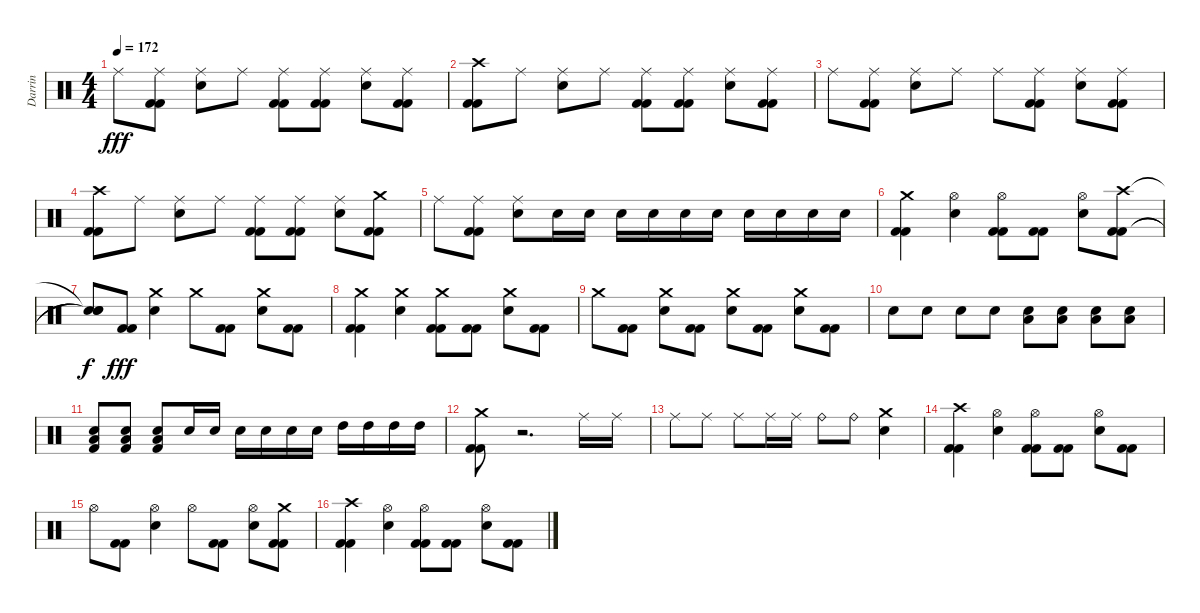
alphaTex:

\track ("Darrin" "Darrin") {instrument percussion}
\staff {score}
\articulation defaults
\ts (4 4)
\tempo 172
\clef neutral
\ks c "Ride (middle)".8{dy fff}
("Ride (middle)" "Kick (hit) 2" "Kick (hit) 2").8 ("Ride (middle)" "Snare (hit) 2").8 "Ride (middle)".8 ("Ride (middle)" "Kick (hit) 2" "Kick (hit) 2").8 ("Ride (middle)" "Kick (hit) 2" "Kick (hit) 2").8 ("Ride (middle)" "Snare (hit) 2").8 ("Ride (middle)" "Kick (hit) 2" "Kick (hit) 2").8 |
("Crash high (hit)" "Kick (hit) 2" "Kick (hit) 2").8 "Ride (middle)".8 ("Ride (middle)" "Snare (hit) 2").8 "Ride (middle)".8 ("Ride (middle)" "Kick (hit) 2" "Kick (hit) 2").8 ("Ride (middle)" "Kick (hit) 2" "Kick (hit) 2").8 ("Ride (middle)" "Snare (hit) 2").8 ("Ride (middle)" "Kick (hit) 2" "Kick (hit) 2").8 |
"Ride (middle)".8 ("Ride (middle)" "Kick (hit) 2" "Kick (hit) 2").8 ("Ride (middle)" "Snare (hit) 2").8 "Ride (middle)".8 "Ride (middle)".8 ("Ride (middle)" "Kick (hit) 2" "Kick (hit) 2").8 ("Ride (middle)" "Snare (hit) 2").8 ("Ride (middle)" "Kick (hit) 2" "Kick (hit) 2").8 |
("Crash high (hit)" "Kick (hit) 2" "Kick (hit) 2").8 "Ride (middle)".8 ("Ride (middle)" "Snare (hit) 2").8 "Ride (middle)".8 ("Ride (middle)" "Kick (hit) 2" "Kick (hit) 2").8 ("Ride (middle)" "Kick (hit) 2" "Kick (hit) 2").8 ("Ride (middle)" "Snare (hit) 2").8 ("Crash medium (hit)" "Kick (hit) 2" "Kick (hit) 2").8 |
"Ride (middle)".8 ("Ride (middle)" "Kick (hit) 2" "Kick (hit) 2").8 ("Ride (middle)" "Snare (hit) 2").8 "Snare (hit) 2".16 "Snare (hit) 2".16 "Snare (hit) 2".16 "Snare (hit) 2".16 "Snare (hit) 2".16 "Snare (hit) 2".16 "Snare (hit) 2".16 "Snare (hit) 2".16 "Snare (hit) 2".16 "Snare (hit) 2".16 |
("Crash medium (hit)" "Kick (hit) 2" "Kick (hit) 2").4 ("Hi-Hat (open)" "Snare (hit) 2").4 ("Hi-Hat (open)" "Kick (hit) 2" "Kick (hit) 2").8 ("Kick (hit) 2" "Kick (hit) 2").8 ("Hi-Hat (open)" "Snare (hit) 2").8 ("Crash high (hit)" "Kick (hit) 2" "Kick (hit) 2").8 |
("Snare (hit)"{t} "Snare (hit)"{t} "Snare (hit)"{t}).8{dy f} ("Kick (hit) 2" "Kick (hit) 2").8{dy fff} ("Crash medium (hit)" "Snare (hit) 2").4 "Crash medium (hit)".8 ("Kick (hit) 2" "Kick (hit) 2").8 ("Crash medium (hit)" "Snare (hit) 2").8 ("Kick (hit) 2" "Kick (hit) 2").8 |
("Crash medium (hit)" "Kick (hit) 2" "Kick (hit) 2").4 ("Crash medium (hit)" "Snare (hit) 2").4 ("Crash medium (hit)" "Kick (hit) 2" "Kick (hit) 2").8 ("Kick (hit) 2" "Kick (hit) 2").8 ("Crash medium (hit)" "Snare (hit) 2").8 ("Kick (hit) 2" "Kick (hit) 2").8 |
"Crash medium (hit)".8 ("Kick (hit) 2" "Kick (hit) 2").8 ("Crash medium (hit)" "Snare (hit) 2").8 ("Kick (hit) 2" "Kick (hit) 2").8 ("Crash medium (hit)" "Snare (hit) 2").8 ("Kick (hit) 2" "Kick (hit) 2").8 ("Crash medium (hit)" "Snare (hit) 2").8 ("Kick (hit) 2" "Kick (hit) 2").8 |
"Snare (hit) 2".8 "Snare (hit) 2".8 "Snare (hit) 2".8 "Snare (hit) 2".8 ("Low Floor Tom (hit)" "Snare (hit) 2").8 ("Low Floor Tom (hit)" "Snare (hit) 2").8 ("Low Floor Tom (hit)" "Snare (hit) 2").8 ("Low Floor Tom (hit)" "Snare (hit) 2").8 |
("Low Floor Tom (hit)" "Snare (hit) 2" "Kick (hit) 2").8 ("Low Floor Tom (hit)" "Snare (hit) 2" "Kick (hit) 2").8 ("Low Floor Tom (hit)" "Snare (hit) 2" "Kick (hit) 2").8 "Snare (hit) 2".16 "Snare (hit) 2".16 "Snare (hit) 2".16 "Snare (hit) 2".16 "Snare (hit) 2".16 "Snare (hit) 2".16 "High Tom (hit)".16 "High Tom (hit)".16 "High Tom (hit)".16 "High Tom (hit)".16 |
("Crash medium (hit)" "Kick (hit) 2" "Kick (hit) 2").8 r.2{d} "Ride (middle)".16 "Ride (middle)".16 |
"Ride (middle)".8 "Ride (middle)".8 "Ride (middle)".8 "Ride (middle)".16 "Ride (middle)".16 "Ride (bell)".8 "Ride (bell)".8 ("Crash medium (hit)" "Snare (hit) 2").4 |
("Crash high (hit)" "Kick (hit) 2" "Kick (hit) 2").4 ("Hi-Hat (open)" "Snare (hit) 2").4 ("Hi-Hat (open)" "Kick (hit) 2" "Kick (hit) 2").8 ("Kick (hit) 2" "Kick (hit) 2").8 ("Hi-Hat (open)" "Snare (hit) 2").8 ("Kick (hit) 2" "Kick (hit) 2").8 |
"Hi-Hat (open)".8 ("Kick (hit) 2" "Kick (hit) 2").8 ("Hi-Hat (open)" "Snare (hit) 2").4 "Hi-Hat (open)".8 ("Kick (hit) 2" "Kick (hit) 2").8 ("Hi-Hat (open)" "Snare (hit) 2").8 ("Crash medium (hit)" "Kick (hit) 2" "Kick (hit) 2").8 |
("Crash high (hit)" "Kick (hit) 2" "Kick (hit) 2").4 ("Hi-Hat (open)" "Snare (hit) 2").4 ("Hi-Hat (open)" "Kick (hit) 2" "Kick (hit) 2").8 ("Kick (hit) 2" "Kick (hit) 2").8 ("Hi-Hat (open)" "Snare (hit) 2").8 ("Kick (hit) 2" "Kick (hit) 2").8
